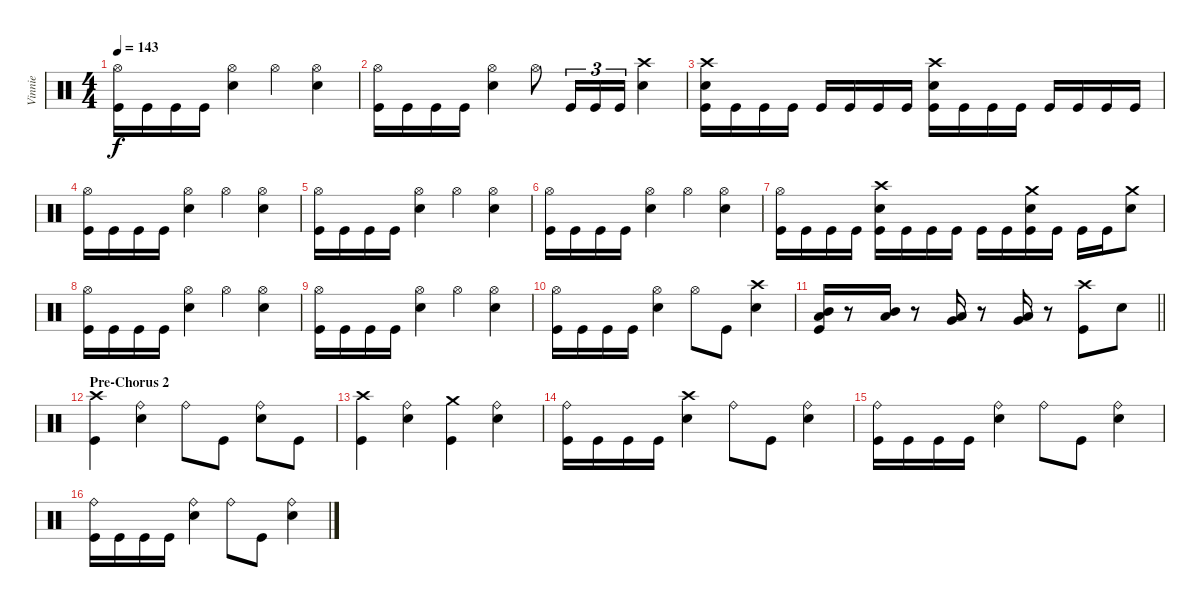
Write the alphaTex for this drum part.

\track ("Vinnie" "Vinnie") {instrument percussion}
\staff {score}
\articulation defaults
\ts (4 4)
\tempo 143
\clef neutral
\ks c
("Hi-Hat (open)" "Kick (hit)").16{dy f} "Kick (hit)".16 "Kick (hit)".16 "Kick (hit)".16 ("Hi-Hat (open)" "Electric Snare (hit)").4 "Hi-Hat (open)".4 ("Hi-Hat (open)" "Electric Snare (hit)").4 |
("Hi-Hat (open)" "Kick (hit)").16 "Kick (hit)".16 "Kick (hit)".16 "Kick (hit)".16 ("Hi-Hat (open)" "Electric Snare (hit)").4 "Hi-Hat (open)".8 "Kick (hit)".16{tu (3 2)} "Kick (hit)".16{tu (3 2)} "Kick (hit)".16{tu (3 2)} ("Crash high (hit)" "Electric Snare (hit)").4 |
("Crash high (hit)" "Electric Snare (hit)" "Kick (hit)").16 "Kick (hit)".16 "Kick (hit)".16 "Kick (hit)".16 "Kick (hit)".16 "Kick (hit)".16 "Kick (hit)".16 "Kick (hit)".16 ("Crash high (hit)" "Electric Snare (hit)" "Kick (hit)").16 "Kick (hit)".16 "Kick (hit)".16 "Kick (hit)".16 "Kick (hit)".16 "Kick (hit)".16 "Kick (hit)".16 "Kick (hit)".16 |
("Hi-Hat (open)" "Kick (hit)").16 "Kick (hit)".16 "Kick (hit)".16 "Kick (hit)".16 ("Hi-Hat (open)" "Electric Snare (hit)").4 "Hi-Hat (open)".4 ("Hi-Hat (open)" "Electric Snare (hit)").4 |
("Hi-Hat (open)" "Kick (hit)").16 "Kick (hit)".16 "Kick (hit)".16 "Kick (hit)".16 ("Hi-Hat (open)" "Electric Snare (hit)").4 "Hi-Hat (open)".4 ("Hi-Hat (open)" "Electric Snare (hit)").4 |
("Hi-Hat (open)" "Kick (hit)").16 "Kick (hit)".16 "Kick (hit)".16 "Kick (hit)".16 ("Hi-Hat (open)" "Electric Snare (hit)").4 "Hi-Hat (open)".4 ("Hi-Hat (open)" "Electric Snare (hit)").4 |
("Hi-Hat (open)" "Kick (hit)").16 "Kick (hit)".16 "Kick (hit)".16 "Kick (hit)".16 ("Crash high (hit)" "Electric Snare (hit)" "Kick (hit)").16 "Kick (hit)".16 "Kick (hit)".16 "Kick (hit)".16 "Kick (hit)".16 "Kick (hit)".16 ("Crash medium (hit)" "Electric Snare (hit)" "Kick (hit)").16 "Kick (hit)".16 "Kick (hit)".16 "Kick (hit)".16 ("Crash medium (hit)" "Electric Snare (hit)").8 |
("Hi-Hat (open)" "Kick (hit)").16 "Kick (hit)".16 "Kick (hit)".16 "Kick (hit)".16 ("Hi-Hat (open)" "Electric Snare (hit)").4 "Hi-Hat (open)".4 ("Hi-Hat (open)" "Electric Snare (hit)").4 |
("Hi-Hat (open)" "Kick (hit)").16 "Kick (hit)".16 "Kick (hit)".16 "Kick (hit)".16 ("Hi-Hat (open)" "Electric Snare (hit)").4 "Hi-Hat (open)".4 ("Hi-Hat (open)" "Electric Snare (hit)").4 |
("Hi-Hat (open)" "Kick (hit)").16 "Kick (hit)".16 "Kick (hit)".16 "Kick (hit)".16 ("Hi-Hat (open)" "Electric Snare (hit)").4 "Hi-Hat (open)".8 "Kick (hit)".8 ("Crash high (hit)" "Electric Snare (hit)").4 |
\barLineRight lightlight
("Mid Tom (hit)" "Low Tom (hit)" "Kick (hit)").16 r.8 ("Mid Tom (hit)" "Low Tom (hit)").16 r.8 ("Low Tom (hit)" "Very Low Tom (hit)").16 r.8 ("Low Tom (hit)" "Very Low Tom (hit)").16 r.8 ("Crash high (hit)" "Kick (hit)").8 "Electric Snare (hit)".8 |
\section ("" "Pre-Chorus 2")
("Crash high (hit)" "Kick (hit)").4 ("Ride (bell)" "Electric Snare (hit)").4 "Ride (bell)".8 "Kick (hit)".8 ("Ride (bell)" "Electric Snare (hit)").8 "Kick (hit)".8 |
("Crash high (hit)" "Kick (hit)").4 ("Ride (bell)" "Electric Snare (hit)").4 ("Crash medium (hit)" "Kick (hit)").4 ("Ride (bell)" "Electric Snare (hit)").4 |
("Ride (bell)" "Kick (hit)").16 "Kick (hit)".16 "Kick (hit)".16 "Kick (hit)".16 ("Crash high (hit)" "Electric Snare (hit)").4 "Ride (bell)".8 "Kick (hit)".8 ("Ride (bell)" "Electric Snare (hit)").4 |
("Ride (bell)" "Kick (hit)").16 "Kick (hit)".16 "Kick (hit)".16 "Kick (hit)".16 ("Ride (bell)" "Electric Snare (hit)").4 "Ride (bell)".8 "Kick (hit)".8 ("Ride (bell)" "Electric Snare (hit)").4 |
("Ride (bell)" "Kick (hit)").16 "Kick (hit)".16 "Kick (hit)".16 "Kick (hit)".16 ("Ride (bell)" "Electric Snare (hit)").4 "Ride (bell)".8 "Kick (hit)".8 ("Ride (bell)" "Electric Snare (hit)").4
